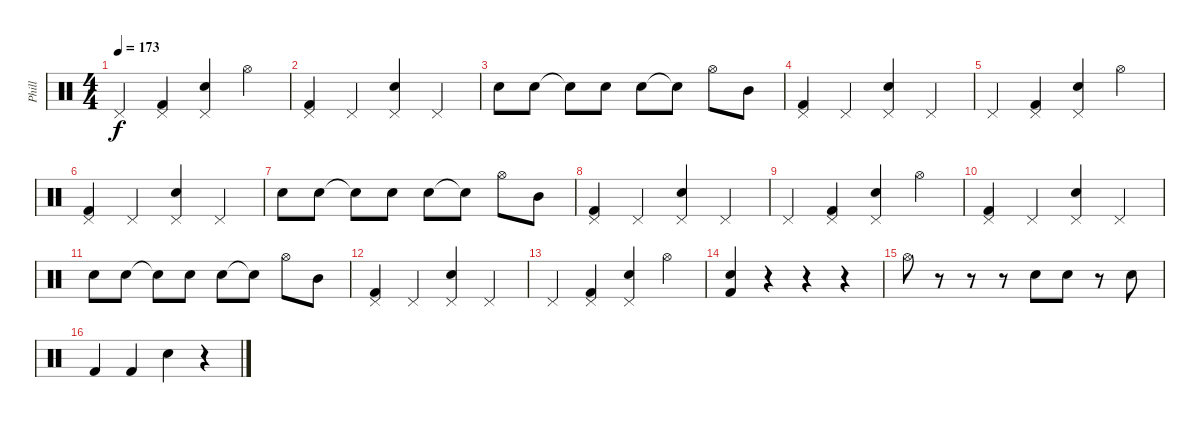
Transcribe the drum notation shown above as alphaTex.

\track ("Phill" "Phill") {instrument percussion}
\staff {score}
\articulation defaults
\ts (4 4)
\tempo 173
\clef neutral
\ks c "Pedal Hi-Hat (hit)".4{dy f}
("Pedal Hi-Hat (hit)" "Kick (hit) 2").4 ("Pedal Hi-Hat (hit)" "Electric Snare (hit)").4 "Hi-Hat (open)".4 |
("Pedal Hi-Hat (hit)" "Kick (hit) 2").4 "Pedal Hi-Hat (hit)".4 ("Pedal Hi-Hat (hit)" "Electric Snare (hit)").4 "Pedal Hi-Hat (hit)".4 |
"Electric Snare (hit)".8 "Electric Snare (hit)".8 "Snare (hit)"{t}.8 "Electric Snare (hit)".8 "Electric Snare (hit)".8 "Snare (hit)"{t}.8 "Hi-Hat (open)".8 "Mid Tom (hit)".8 |
("Pedal Hi-Hat (hit)" "Kick (hit) 2").4 "Pedal Hi-Hat (hit)".4 ("Pedal Hi-Hat (hit)" "Electric Snare (hit)").4 "Pedal Hi-Hat (hit)".4 |
"Pedal Hi-Hat (hit)".4 ("Pedal Hi-Hat (hit)" "Kick (hit) 2").4 ("Pedal Hi-Hat (hit)" "Electric Snare (hit)").4 "Hi-Hat (open)".4 |
("Pedal Hi-Hat (hit)" "Kick (hit) 2").4 "Pedal Hi-Hat (hit)".4 ("Pedal Hi-Hat (hit)" "Electric Snare (hit)").4 "Pedal Hi-Hat (hit)".4 |
"Electric Snare (hit)".8 "Electric Snare (hit)".8 "Snare (hit)"{t}.8 "Electric Snare (hit)".8 "Electric Snare (hit)".8 "Snare (hit)"{t}.8 "Hi-Hat (open)".8 "Mid Tom (hit)".8 |
("Pedal Hi-Hat (hit)" "Kick (hit) 2").4 "Pedal Hi-Hat (hit)".4 ("Pedal Hi-Hat (hit)" "Electric Snare (hit)").4 "Pedal Hi-Hat (hit)".4 |
"Pedal Hi-Hat (hit)".4 ("Pedal Hi-Hat (hit)" "Kick (hit) 2").4 ("Pedal Hi-Hat (hit)" "Electric Snare (hit)").4 "Hi-Hat (open)".4 |
("Pedal Hi-Hat (hit)" "Kick (hit) 2").4 "Pedal Hi-Hat (hit)".4 ("Pedal Hi-Hat (hit)" "Electric Snare (hit)").4 "Pedal Hi-Hat (hit)".4 |
"Electric Snare (hit)".8 "Electric Snare (hit)".8 "Snare (hit)"{t}.8 "Electric Snare (hit)".8 "Electric Snare (hit)".8 "Snare (hit)"{t}.8 "Hi-Hat (open)".8 "Mid Tom (hit)".8 |
("Pedal Hi-Hat (hit)" "Kick (hit) 2").4 "Pedal Hi-Hat (hit)".4 ("Pedal Hi-Hat (hit)" "Electric Snare (hit)").4 "Pedal Hi-Hat (hit)".4 |
"Pedal Hi-Hat (hit)".4 ("Pedal Hi-Hat (hit)" "Kick (hit) 2").4 ("Pedal Hi-Hat (hit)" "Electric Snare (hit)").4 "Hi-Hat (open)".4 |
("Electric Snare (hit)" "Kick (hit) 2").4 r.4 r.4 r.4 |
"Hi-Hat (open)".8 r.8 r.8 r.8 "Electric Snare (hit)".8 "Electric Snare (hit)".8 r.8 "Electric Snare (hit)".8 |
"Kick (hit) 2".4 "Kick (hit) 2".4 "Electric Snare (hit)".4 r.4
